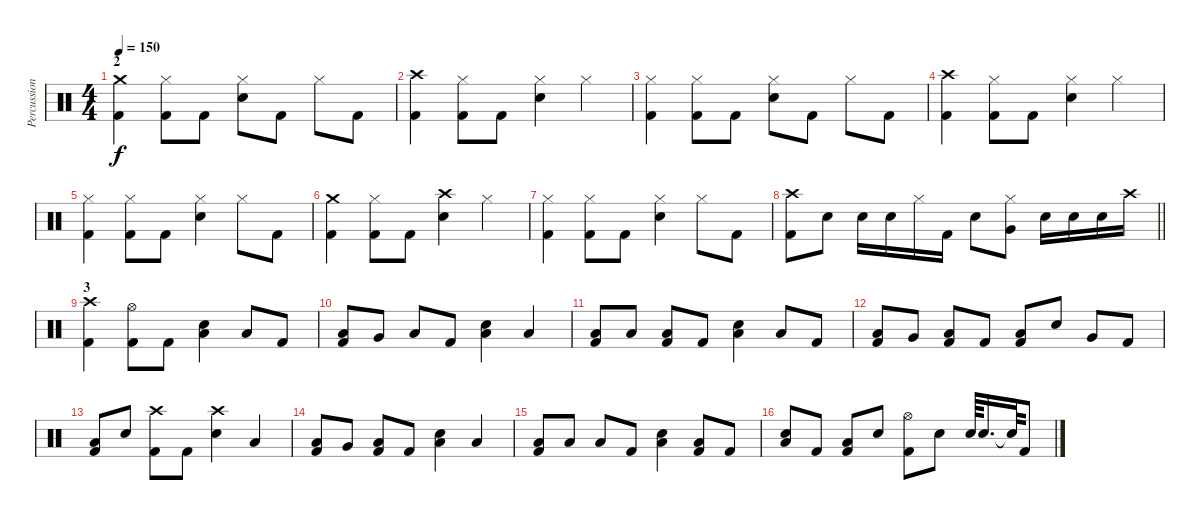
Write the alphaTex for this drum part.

\track ("Percussion" "Percussion") {instrument percussion}
\staff {score}
\articulation defaults
\ts (4 4)
\section ("" "2")
\tempo 150
\clef neutral
\ks c
("Crash medium (hit)" "Kick (hit) 2").4{dy f} ("Hi-Hat (closed)" "Kick (hit) 2").8 "Kick (hit) 2".8 ("Hi-Hat (closed)" "Snare (hit) 2").8 "Kick (hit) 2".8 "Hi-Hat (closed)".8 "Kick (hit) 2".8 |
("Crash high (hit)" "Kick (hit) 2").4 ("Hi-Hat (closed)" "Kick (hit) 2").8 "Kick (hit) 2".8 ("Hi-Hat (closed)" "Snare (hit) 2").4 "Hi-Hat (closed)".4 |
("Hi-Hat (closed)" "Kick (hit) 2").4 ("Hi-Hat (closed)" "Kick (hit) 2").8 "Kick (hit) 2".8 ("Hi-Hat (closed)" "Snare (hit) 2").8 "Kick (hit) 2".8 "Hi-Hat (closed)".8 "Kick (hit) 2".8 |
("Crash high (hit)" "Kick (hit) 2").4 ("Hi-Hat (closed)" "Kick (hit) 2").8 "Kick (hit) 2".8 ("Hi-Hat (closed)" "Snare (hit) 2").4 "Hi-Hat (closed)".4 |
("Hi-Hat (closed)" "Kick (hit) 2").4 ("Hi-Hat (closed)" "Kick (hit) 2").8 "Kick (hit) 2".8 ("Hi-Hat (closed)" "Snare (hit) 2").4 "Hi-Hat (closed)".8 "Kick (hit) 2".8 |
("Crash medium (hit)" "Kick (hit) 2").4 ("Hi-Hat (closed)" "Kick (hit) 2").8 "Kick (hit) 2".8 ("Crash high (hit)" "Snare (hit) 2").4 "Hi-Hat (closed)".4 |
("Hi-Hat (closed)" "Kick (hit) 2").4 ("Hi-Hat (closed)" "Kick (hit) 2").8 "Kick (hit) 2".8 ("Hi-Hat (closed)" "Snare (hit) 2").4 "Hi-Hat (closed)".8 "Kick (hit) 2".8 |
\barLineRight lightlight
("Crash high (hit)" "Kick (hit) 2").8 "Snare (hit) 2".8 "Snare (hit) 2".16 "Snare (hit) 2".16 "Hi-Hat (closed)".16 "Kick (hit) 2".16 "Snare (hit) 2".8 ("Hi-Hat (closed)" "Very Low Tom (hit)").8 "Snare (hit) 2".16 "Snare (hit) 2".16 "Snare (hit) 2".16 "Crash high (hit)".16 |
\section ("" "3")
("Crash high (hit)" "Kick (hit) 2").4 ("Hi-Hat (open)" "Kick (hit) 2").8 "Kick (hit) 2".8 ("Snare (hit) 2" "Low Floor Tom (hit)").4 "Low Floor Tom (hit)".8 "Kick (hit) 2".8 |
("Low Floor Tom (hit)" "Kick (hit) 2").8 "Very Low Tom (hit)".8 "Low Floor Tom (hit)".8 "Kick (hit) 2".8 ("Snare (hit) 2" "Low Floor Tom (hit)").4 "Low Floor Tom (hit)".4 |
("Low Floor Tom (hit)" "Kick (hit) 2").8 "Low Tom (hit)".8 ("Low Floor Tom (hit)" "Kick (hit) 2").8 "Kick (hit) 2".8 ("Snare (hit) 2" "Low Floor Tom (hit)").4 "Low Floor Tom (hit)".8 "Kick (hit) 2".8 |
("Low Floor Tom (hit)" "Kick (hit) 2").8 "Very Low Tom (hit)".8 ("Low Floor Tom (hit)" "Kick (hit) 2").8 "Kick (hit) 2".8 ("Low Floor Tom (hit)" "Kick (hit) 2").8 "Snare (hit) 2".8 "Very Low Tom (hit)".8 "Kick (hit) 2".8 |
("Low Floor Tom (hit)" "Kick (hit) 2").8 "Snare (hit) 2".8 ("Crash high (hit)" "Kick (hit) 2").8 "Kick (hit) 2".8 ("Crash high (hit)" "Snare (hit) 2").4 "Low Floor Tom (hit)".4 |
("Low Floor Tom (hit)" "Kick (hit) 2").8 "Very Low Tom (hit)".8 ("Low Floor Tom (hit)" "Kick (hit) 2").8 "Kick (hit) 2".8 ("Snare (hit) 2" "Low Floor Tom (hit)").4 "Low Floor Tom (hit)".4 |
("Low Floor Tom (hit)" "Kick (hit) 2").8 "Low Tom (hit)".8 "Low Floor Tom (hit)".8 "Kick (hit) 2".8 ("Snare (hit) 2" "Low Floor Tom (hit)").4 ("Low Floor Tom (hit)" "Kick (hit) 2").8 "Kick (hit) 2".8 |
("Snare (hit) 2" "Low Floor Tom (hit)").8 "Kick (hit) 2".8 ("Low Floor Tom (hit)" "Kick (hit) 2").8 "Snare (hit) 2".8 ("Hi-Hat (open)" "Kick (hit) 2").8 "Snare (hit) 2".8 "Snare (hit) 2".64 "Snare (hit) 2".16{d} "Snare (hit)"{t}.64 "Kick (hit) 2".8
